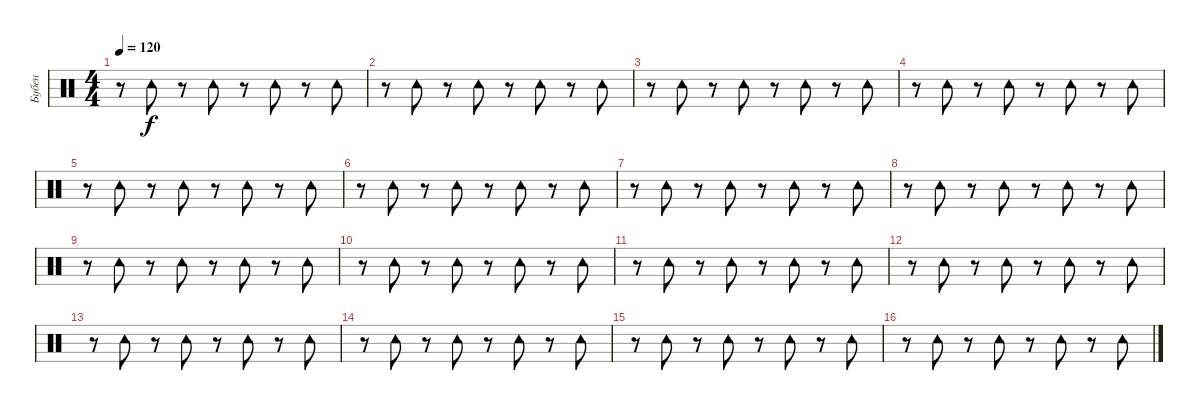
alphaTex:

\track ("Бубен" "Бубен") {instrument percussion}
\staff {score}
\articulation defaults
\ts (4 4)
\tempo 120
\clef neutral
\ks c
r.8{dy f} "Tambourine (hit)".8 r.8 "Tambourine (hit)".8 r.8 "Tambourine (hit)".8 r.8 "Tambourine (hit)".8 |
r.8 "Tambourine (hit)".8 r.8 "Tambourine (hit)".8 r.8 "Tambourine (hit)".8 r.8 "Tambourine (hit)".8 |
r.8 "Tambourine (hit)".8 r.8 "Tambourine (hit)".8 r.8 "Tambourine (hit)".8 r.8 "Tambourine (hit)".8 |
r.8 "Tambourine (hit)".8 r.8 "Tambourine (hit)".8 r.8 "Tambourine (hit)".8 r.8 "Tambourine (hit)".8 |
r.8 "Tambourine (hit)".8 r.8 "Tambourine (hit)".8 r.8 "Tambourine (hit)".8 r.8 "Tambourine (hit)".8 |
r.8 "Tambourine (hit)".8 r.8 "Tambourine (hit)".8 r.8 "Tambourine (hit)".8 r.8 "Tambourine (hit)".8 |
r.8 "Tambourine (hit)".8 r.8 "Tambourine (hit)".8 r.8 "Tambourine (hit)".8 r.8 "Tambourine (hit)".8 |
r.8 "Tambourine (hit)".8 r.8 "Tambourine (hit)".8 r.8 "Tambourine (hit)".8 r.8 "Tambourine (hit)".8 |
r.8 "Tambourine (hit)".8 r.8 "Tambourine (hit)".8 r.8 "Tambourine (hit)".8 r.8 "Tambourine (hit)".8 |
r.8 "Tambourine (hit)".8 r.8 "Tambourine (hit)".8 r.8 "Tambourine (hit)".8 r.8 "Tambourine (hit)".8 |
r.8 "Tambourine (hit)".8 r.8 "Tambourine (hit)".8 r.8 "Tambourine (hit)".8 r.8 "Tambourine (hit)".8 |
r.8 "Tambourine (hit)".8 r.8 "Tambourine (hit)".8 r.8 "Tambourine (hit)".8 r.8 "Tambourine (hit)".8 |
r.8 "Tambourine (hit)".8 r.8 "Tambourine (hit)".8 r.8 "Tambourine (hit)".8 r.8 "Tambourine (hit)".8 |
r.8 "Tambourine (hit)".8 r.8 "Tambourine (hit)".8 r.8 "Tambourine (hit)".8 r.8 "Tambourine (hit)".8 |
r.8 "Tambourine (hit)".8 r.8 "Tambourine (hit)".8 r.8 "Tambourine (hit)".8 r.8 "Tambourine (hit)".8 |
r.8 "Tambourine (hit)".8 r.8 "Tambourine (hit)".8 r.8 "Tambourine (hit)".8 r.8 "Tambourine (hit)".8
